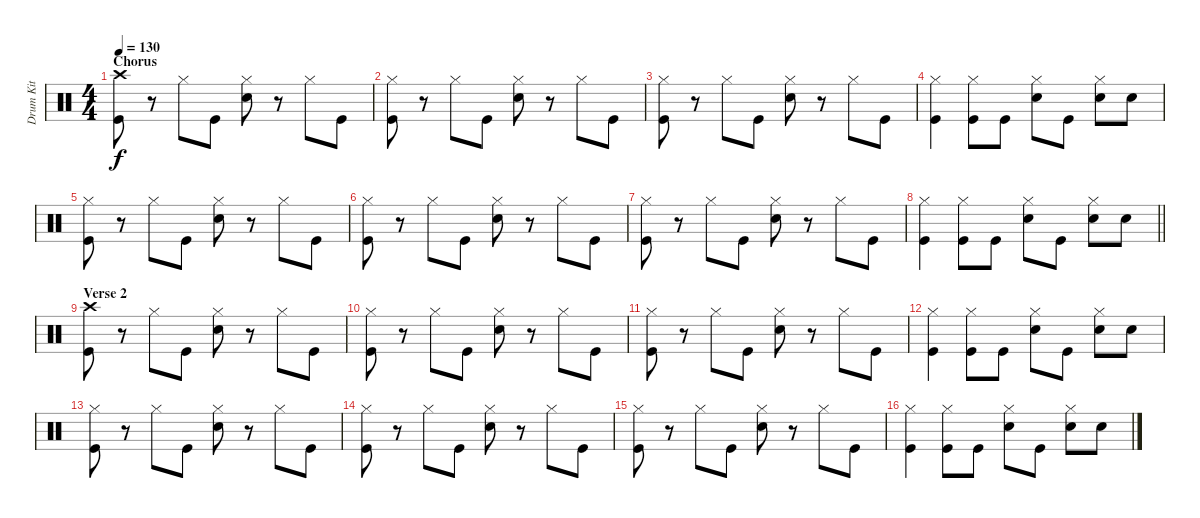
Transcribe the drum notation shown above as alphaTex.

\track ("Drum Kit" "Drum Kit") {instrument percussion}
\staff {score}
\articulation defaults
\ts (4 4)
\section ("" "Chorus")
\tempo 130
\clef neutral
\ks c
("Crash high (hit)" "Kick (hit)").8{dy f} r.8 "Hi-Hat (closed)".8 "Kick (hit)".8 ("Hi-Hat (closed)" "Snare (hit) 2").8 r.8 "Hi-Hat (closed)".8 "Kick (hit)".8 |
("Hi-Hat (closed)" "Kick (hit)").8 r.8 "Hi-Hat (closed)".8 "Kick (hit)".8 ("Hi-Hat (closed)" "Snare (hit) 2").8 r.8 "Hi-Hat (closed)".8 "Kick (hit)".8 |
("Hi-Hat (closed)" "Kick (hit)").8 r.8 "Hi-Hat (closed)".8 "Kick (hit)".8 ("Hi-Hat (closed)" "Snare (hit) 2").8 r.8 "Hi-Hat (closed)".8 "Kick (hit)".8 |
("Hi-Hat (closed)" "Kick (hit)").4 ("Hi-Hat (closed)" "Kick (hit)").8 "Kick (hit)".8 ("Hi-Hat (closed)" "Snare (hit) 2").8 "Kick (hit)".8 ("Hi-Hat (closed)" "Snare (hit) 2").8 "Snare (hit) 2".8 |
("Hi-Hat (closed)" "Kick (hit)").8 r.8 "Hi-Hat (closed)".8 "Kick (hit)".8 ("Hi-Hat (closed)" "Snare (hit) 2").8 r.8 "Hi-Hat (closed)".8 "Kick (hit)".8 |
("Hi-Hat (closed)" "Kick (hit)").8 r.8 "Hi-Hat (closed)".8 "Kick (hit)".8 ("Hi-Hat (closed)" "Snare (hit) 2").8 r.8 "Hi-Hat (closed)".8 "Kick (hit)".8 |
("Hi-Hat (closed)" "Kick (hit)").8 r.8 "Hi-Hat (closed)".8 "Kick (hit)".8 ("Hi-Hat (closed)" "Snare (hit) 2").8 r.8 "Hi-Hat (closed)".8 "Kick (hit)".8 |
\barLineRight lightlight
("Hi-Hat (closed)" "Kick (hit)").4 ("Hi-Hat (closed)" "Kick (hit)").8 "Kick (hit)".8 ("Hi-Hat (closed)" "Snare (hit) 2").8 "Kick (hit)".8 ("Hi-Hat (closed)" "Snare (hit) 2").8 "Snare (hit) 2".8 |
\section ("" "Verse 2")
("Crash high (hit)" "Kick (hit)").8 r.8 "Hi-Hat (closed)".8 "Kick (hit)".8 ("Hi-Hat (closed)" "Snare (hit) 2").8 r.8 "Hi-Hat (closed)".8 "Kick (hit)".8 |
("Hi-Hat (closed)" "Kick (hit)").8 r.8 "Hi-Hat (closed)".8 "Kick (hit)".8 ("Hi-Hat (closed)" "Snare (hit) 2").8 r.8 "Hi-Hat (closed)".8 "Kick (hit)".8 |
("Hi-Hat (closed)" "Kick (hit)").8 r.8 "Hi-Hat (closed)".8 "Kick (hit)".8 ("Hi-Hat (closed)" "Snare (hit) 2").8 r.8 "Hi-Hat (closed)".8 "Kick (hit)".8 |
("Hi-Hat (closed)" "Kick (hit)").4 ("Hi-Hat (closed)" "Kick (hit)").8 "Kick (hit)".8 ("Hi-Hat (closed)" "Snare (hit) 2").8 "Kick (hit)".8 ("Hi-Hat (closed)" "Snare (hit) 2").8 "Snare (hit) 2".8 |
("Hi-Hat (closed)" "Kick (hit)").8 r.8 "Hi-Hat (closed)".8 "Kick (hit)".8 ("Hi-Hat (closed)" "Snare (hit) 2").8 r.8 "Hi-Hat (closed)".8 "Kick (hit)".8 |
("Hi-Hat (closed)" "Kick (hit)").8 r.8 "Hi-Hat (closed)".8 "Kick (hit)".8 ("Hi-Hat (closed)" "Snare (hit) 2").8 r.8 "Hi-Hat (closed)".8 "Kick (hit)".8 |
("Hi-Hat (closed)" "Kick (hit)").8 r.8 "Hi-Hat (closed)".8 "Kick (hit)".8 ("Hi-Hat (closed)" "Snare (hit) 2").8 r.8 "Hi-Hat (closed)".8 "Kick (hit)".8 |
("Hi-Hat (closed)" "Kick (hit)").4 ("Hi-Hat (closed)" "Kick (hit)").8 "Kick (hit)".8 ("Hi-Hat (closed)" "Snare (hit) 2").8 "Kick (hit)".8 ("Hi-Hat (closed)" "Snare (hit) 2").8 "Snare (hit) 2".8
